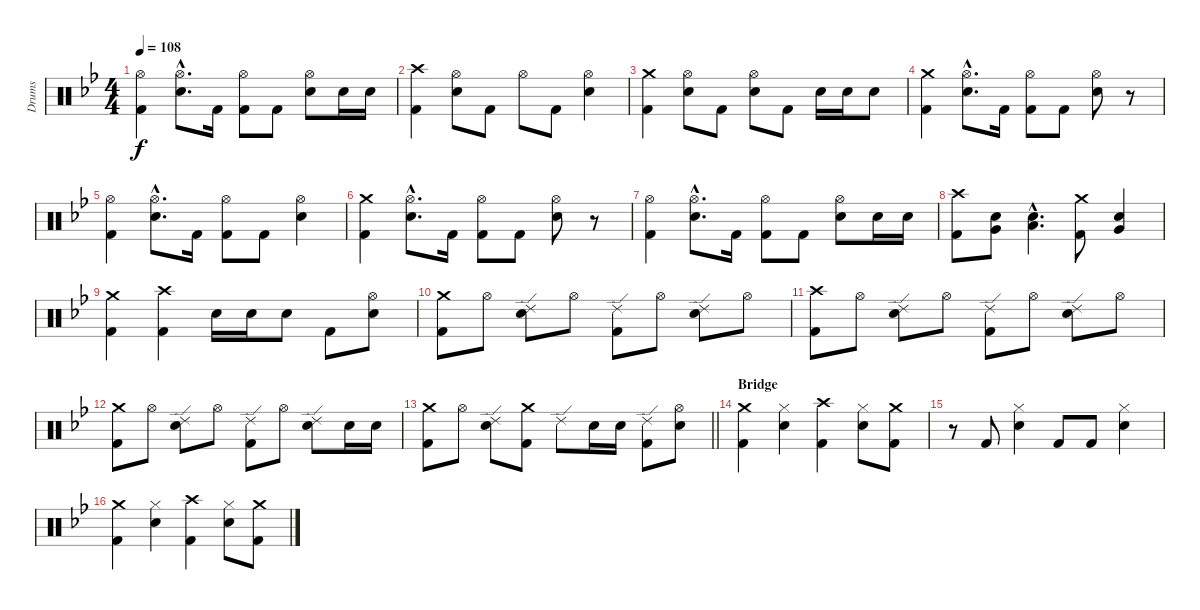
\track ("Drums" "Drums") {instrument percussion}
\staff {score}
\articulation defaults
\ts (4 4)
\tempo 108
\clef neutral
\ks gminor
("Hi-Hat (open)" "Kick (hit) 2").4{dy f} ("Hi-Hat (open)"{hac} "Snare (hit) 2"{hac}).8{d} "Kick (hit) 2".16 ("Hi-Hat (open)" "Kick (hit) 2").8 "Kick (hit) 2".8 ("Hi-Hat (open)" "Snare (hit) 2").8 "Snare (hit) 2".16 "Snare (hit) 2".16 |
("Crash high (hit)" "Kick (hit) 2").4 ("Hi-Hat (open)" "Snare (hit) 2").8 "Kick (hit) 2".8 "Hi-Hat (open)".8 "Kick (hit) 2".8 ("Hi-Hat (open)" "Snare (hit) 2").4 |
("Crash medium (hit)" "Kick (hit) 2").4 ("Hi-Hat (open)" "Snare (hit) 2").8 "Kick (hit) 2".8 ("Hi-Hat (open)" "Snare (hit) 2").8 "Kick (hit) 2".8 "Snare (hit) 2".16 "Snare (hit) 2".16 "Snare (hit) 2".8 |
("Crash medium (hit)" "Kick (hit) 2").4 ("Hi-Hat (open)"{hac} "Snare (hit) 2"{hac}).8{d} "Kick (hit) 2".16 ("Hi-Hat (open)" "Kick (hit) 2").8 "Kick (hit) 2".8 ("Hi-Hat (open)" "Snare (hit) 2").8 r.8 |
("Hi-Hat (open)" "Kick (hit) 2").4 ("Hi-Hat (open)"{hac} "Snare (hit) 2"{hac}).8{d} "Kick (hit) 2".16 ("Hi-Hat (open)" "Kick (hit) 2").8 "Kick (hit) 2".8 ("Hi-Hat (open)" "Snare (hit) 2").4 |
("Crash medium (hit)" "Kick (hit) 2").4 ("Hi-Hat (open)"{hac} "Snare (hit) 2"{hac}).8{d} "Kick (hit) 2".16 ("Hi-Hat (open)" "Kick (hit) 2").8 "Kick (hit) 2".8 ("Hi-Hat (open)" "Snare (hit) 2").8 r.8 |
("Hi-Hat (open)" "Kick (hit) 2").4 ("Hi-Hat (open)"{hac} "Snare (hit) 2"{hac}).8{d} "Kick (hit) 2".16 ("Hi-Hat (open)" "Kick (hit) 2").8 "Kick (hit) 2".8 ("Hi-Hat (open)" "Snare (hit) 2").8 "Snare (hit) 2".16 "Snare (hit) 2".16 |
("Crash high (hit)" "Kick (hit) 2").8 ("Snare (hit) 2" "Very Low Tom (hit)").8 ("Snare (hit) 2"{hac} "Low Floor Tom (hit)"{hac}).4{d} ("Crash medium (hit)" "Kick (hit) 2").8 ("Snare (hit) 2" "Very Low Tom (hit)").4 |
("Crash medium (hit)" "Kick (hit) 2").4 ("Crash high (hit)" "Kick (hit) 2").4 "Snare (hit) 2".16 "Snare (hit) 2".16 "Snare (hit) 2".8 "Kick (hit) 2".8 ("Hi-Hat (open)" "Snare (hit) 2").8 |
("Crash medium (hit)" "Kick (hit) 2").8 "Hi-Hat (open)".8 ("Ride (edge) 2" "Snare (hit) 2").8 "Hi-Hat (open)".8 ("Ride (edge) 2" "Kick (hit) 2").8 "Hi-Hat (open)".8 ("Ride (edge) 2" "Snare (hit) 2").8 "Hi-Hat (open)".8 |
("Crash high (hit)" "Kick (hit) 2").8 "Hi-Hat (open)".8 ("Ride (edge) 2" "Snare (hit) 2").8 "Hi-Hat (open)".8 ("Ride (edge) 2" "Kick (hit) 2").8 "Hi-Hat (open)".8 ("Ride (edge) 2" "Snare (hit) 2").8 "Hi-Hat (open)".8 |
("Crash medium (hit)" "Kick (hit) 2").8 "Hi-Hat (open)".8 ("Ride (edge) 2" "Snare (hit) 2").8 "Hi-Hat (open)".8 ("Ride (edge) 2" "Kick (hit) 2").8 "Hi-Hat (open)".8 ("Ride (edge) 2" "Snare (hit) 2").8 "Snare (hit) 2".16 "Snare (hit) 2".16 |
\barLineRight lightlight
("Crash medium (hit)" "Kick (hit) 2").8 "Hi-Hat (open)".8 ("Ride (edge) 2" "Snare (hit) 2").8 ("Crash medium (hit)" "Kick (hit) 2").8 "Ride (edge) 2".8 "Snare (hit) 2".16 "Snare (hit) 2".16 ("Ride (edge) 2" "Kick (hit) 2").8 ("Hi-Hat (open)" "Snare (hit) 2").8 |
\section ("" "Bridge")
("Crash medium (hit)" "Kick (hit) 2").4 ("Hi-Hat (closed)" "Snare (hit) 2").4 ("Crash high (hit)" "Kick (hit) 2").4 ("Hi-Hat (closed)" "Snare (hit) 2").8 ("Crash medium (hit)" "Kick (hit) 2").8 |
r.8 "Kick (hit) 2".8 ("Hi-Hat (closed)" "Snare (hit) 2").4 "Kick (hit) 2".8 "Kick (hit) 2".8 ("Hi-Hat (closed)" "Snare (hit) 2").4 |
("Crash medium (hit)" "Kick (hit) 2").4 ("Hi-Hat (closed)" "Snare (hit) 2").4 ("Crash high (hit)" "Kick (hit) 2").4 ("Hi-Hat (closed)" "Snare (hit) 2").8 ("Crash medium (hit)" "Kick (hit) 2").8
